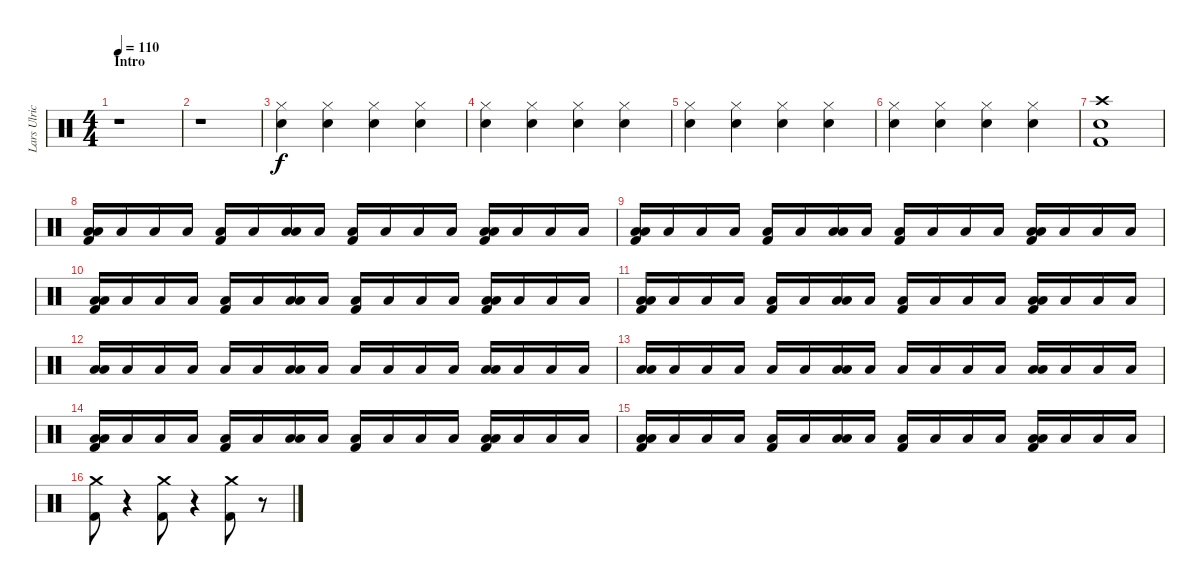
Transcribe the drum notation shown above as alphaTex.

\track ("Lars Ulrich" "Lars Ulric") {instrument percussion}
\staff {score}
\articulation defaults
\ts (4 4)
\section ("" "Intro")
\tempo 110
\clef neutral
\ks c
r.1{dy f} |
r.1 |
("Hi-Hat (closed)" "Electric Snare (hit)").4 ("Hi-Hat (closed)" "Electric Snare (hit)").4 ("Hi-Hat (closed)" "Electric Snare (hit)").4 ("Hi-Hat (closed)" "Electric Snare (hit)").4 |
("Hi-Hat (closed)" "Electric Snare (hit)").4 ("Hi-Hat (closed)" "Electric Snare (hit)").4 ("Hi-Hat (closed)" "Electric Snare (hit)").4 ("Hi-Hat (closed)" "Electric Snare (hit)").4 |
("Hi-Hat (closed)" "Electric Snare (hit)").4 ("Hi-Hat (closed)" "Electric Snare (hit)").4 ("Hi-Hat (closed)" "Electric Snare (hit)").4 ("Hi-Hat (closed)" "Electric Snare (hit)").4 |
("Hi-Hat (closed)" "Electric Snare (hit)").4 ("Hi-Hat (closed)" "Electric Snare (hit)").4 ("Hi-Hat (closed)" "Electric Snare (hit)").4 ("Hi-Hat (closed)" "Electric Snare (hit)").4 |
("Crash high (hit)" "Electric Snare (hit)" "Kick (hit) 2").1 |
("Low Tom (hit)" "Low Floor Tom (hit)" "Kick (hit) 2").16 "Low Floor Tom (hit)".16 "Low Floor Tom (hit)".16 "Low Floor Tom (hit)".16 ("Low Floor Tom (hit)" "Kick (hit) 2").16 "Low Floor Tom (hit)".16 ("Low Tom (hit)" "Low Floor Tom (hit)").16 "Low Floor Tom (hit)".16 ("Low Floor Tom (hit)" "Kick (hit) 2").16 "Low Floor Tom (hit)".16 "Low Floor Tom (hit)".16 "Low Floor Tom (hit)".16 ("Low Tom (hit)" "Low Floor Tom (hit)" "Kick (hit) 2").16 "Low Floor Tom (hit)".16 "Low Floor Tom (hit)".16 "Low Floor Tom (hit)".16 |
("Low Tom (hit)" "Low Floor Tom (hit)" "Kick (hit) 2").16 "Low Floor Tom (hit)".16 "Low Floor Tom (hit)".16 "Low Floor Tom (hit)".16 ("Low Floor Tom (hit)" "Kick (hit) 2").16 "Low Floor Tom (hit)".16 ("Low Tom (hit)" "Low Floor Tom (hit)").16 "Low Floor Tom (hit)".16 ("Low Floor Tom (hit)" "Kick (hit) 2").16 "Low Floor Tom (hit)".16 "Low Floor Tom (hit)".16 "Low Floor Tom (hit)".16 ("Low Tom (hit)" "Low Floor Tom (hit)" "Kick (hit) 2").16 "Low Floor Tom (hit)".16 "Low Floor Tom (hit)".16 "Low Floor Tom (hit)".16 |
("Low Tom (hit)" "Low Floor Tom (hit)" "Kick (hit) 2").16 "Low Floor Tom (hit)".16 "Low Floor Tom (hit)".16 "Low Floor Tom (hit)".16 ("Low Floor Tom (hit)" "Kick (hit) 2").16 "Low Floor Tom (hit)".16 ("Low Tom (hit)" "Low Floor Tom (hit)").16 "Low Floor Tom (hit)".16 ("Low Floor Tom (hit)" "Kick (hit) 2").16 "Low Floor Tom (hit)".16 "Low Floor Tom (hit)".16 "Low Floor Tom (hit)".16 ("Low Tom (hit)" "Low Floor Tom (hit)" "Kick (hit) 2").16 "Low Floor Tom (hit)".16 "Low Floor Tom (hit)".16 "Low Floor Tom (hit)".16 |
("Low Tom (hit)" "Low Floor Tom (hit)" "Kick (hit) 2").16 "Low Floor Tom (hit)".16 "Low Floor Tom (hit)".16 "Low Floor Tom (hit)".16 ("Low Floor Tom (hit)" "Kick (hit) 2").16 "Low Floor Tom (hit)".16 ("Low Tom (hit)" "Low Floor Tom (hit)").16 "Low Floor Tom (hit)".16 ("Low Floor Tom (hit)" "Kick (hit) 2").16 "Low Floor Tom (hit)".16 "Low Floor Tom (hit)".16 "Low Floor Tom (hit)".16 ("Low Tom (hit)" "Low Floor Tom (hit)" "Kick (hit) 2").16 "Low Floor Tom (hit)".16 "Low Floor Tom (hit)".16 "Low Floor Tom (hit)".16 |
("Low Tom (hit)" "Low Floor Tom (hit)").16 "Low Floor Tom (hit)".16 "Low Floor Tom (hit)".16 "Low Floor Tom (hit)".16 "Low Floor Tom (hit)".16 "Low Floor Tom (hit)".16 ("Low Tom (hit)" "Low Floor Tom (hit)").16 "Low Floor Tom (hit)".16 "Low Floor Tom (hit)".16 "Low Floor Tom (hit)".16 "Low Floor Tom (hit)".16 "Low Floor Tom (hit)".16 ("Low Tom (hit)" "Low Floor Tom (hit)").16 "Low Floor Tom (hit)".16 "Low Floor Tom (hit)".16 "Low Floor Tom (hit)".16 |
("Low Tom (hit)" "Low Floor Tom (hit)").16 "Low Floor Tom (hit)".16 "Low Floor Tom (hit)".16 "Low Floor Tom (hit)".16 "Low Floor Tom (hit)".16 "Low Floor Tom (hit)".16 ("Low Tom (hit)" "Low Floor Tom (hit)").16 "Low Floor Tom (hit)".16 "Low Floor Tom (hit)".16 "Low Floor Tom (hit)".16 "Low Floor Tom (hit)".16 "Low Floor Tom (hit)".16 ("Low Tom (hit)" "Low Floor Tom (hit)").16 "Low Floor Tom (hit)".16 "Low Floor Tom (hit)".16 "Low Floor Tom (hit)".16 |
("Low Tom (hit)" "Low Floor Tom (hit)" "Kick (hit) 2").16 "Low Floor Tom (hit)".16 "Low Floor Tom (hit)".16 "Low Floor Tom (hit)".16 ("Low Floor Tom (hit)" "Kick (hit) 2").16 "Low Floor Tom (hit)".16 ("Low Tom (hit)" "Low Floor Tom (hit)").16 "Low Floor Tom (hit)".16 ("Low Floor Tom (hit)" "Kick (hit) 2").16 "Low Floor Tom (hit)".16 "Low Floor Tom (hit)".16 "Low Floor Tom (hit)".16 ("Low Tom (hit)" "Low Floor Tom (hit)" "Kick (hit) 2").16 "Low Floor Tom (hit)".16 "Low Floor Tom (hit)".16 "Low Floor Tom (hit)".16 |
("Low Tom (hit)" "Low Floor Tom (hit)" "Kick (hit) 2").16 "Low Floor Tom (hit)".16 "Low Floor Tom (hit)".16 "Low Floor Tom (hit)".16 ("Low Floor Tom (hit)" "Kick (hit) 2").16 "Low Floor Tom (hit)".16 ("Low Tom (hit)" "Low Floor Tom (hit)").16 "Low Floor Tom (hit)".16 ("Low Floor Tom (hit)" "Kick (hit) 2").16 "Low Floor Tom (hit)".16 "Low Floor Tom (hit)".16 "Low Floor Tom (hit)".16 ("Low Tom (hit)" "Low Floor Tom (hit)" "Kick (hit) 2").16 "Low Floor Tom (hit)".16 "Low Floor Tom (hit)".16 "Low Floor Tom (hit)".16 |
("Crash medium (hit)" "Kick (hit) 2").8 r.4 ("Crash medium (hit)" "Kick (hit) 2").8 r.4 ("Crash medium (hit)" "Kick (hit) 2").8 r.8
